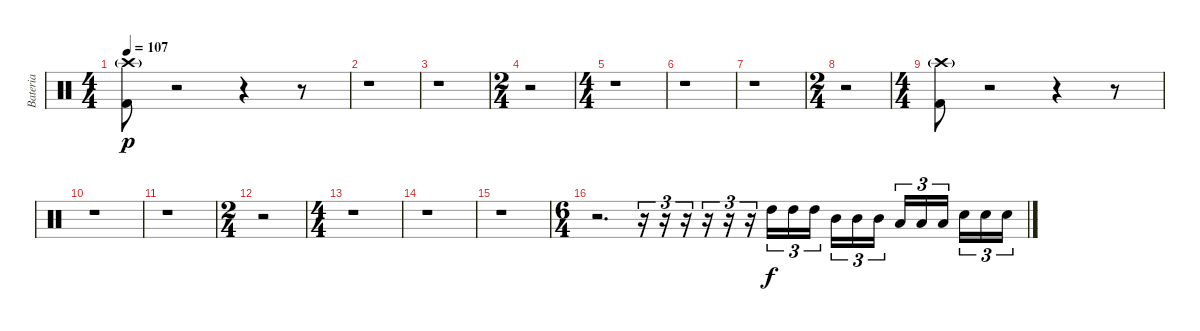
\track ("Bateria" "Bateria") {instrument percussion}
\staff {score}
\articulation defaults
\ts (4 4)
\tempo 107
\clef neutral
\ks c
("Kick (hit) 2" "Crash high (hit)"{g}).8{dy p} r.2 r.4 r.8 |
r.1 |
r.1 |
\ts (2 4)
r.2 |
\ts (4 4)
r.1 |
r.1 |
r.1 |
\ts (2 4)
r.2 |
\ts (4 4)
("Kick (hit) 2" "Crash high (hit)"{g}).8 r.2 r.4 r.8 |
r.1 |
r.1 |
\ts (2 4)
r.2 |
\ts (4 4)
r.1 |
r.1 |
r.1 |
\ts (6 4)
r.2{d} r.16{tu (3 2)} r.16{tu (3 2)} r.16{tu (3 2)} r.16{tu (3 2)} r.16{tu (3 2)} r.16{tu (3 2)} "High Tom (hit)".16{tu (3 2) dy f} "High Tom (hit)".16{tu (3 2)} "High Tom (hit)".16{tu (3 2)} "Mid Tom (hit)".16{tu (3 2)} "Mid Tom (hit)".16{tu (3 2)} "Mid Tom (hit)".16{tu (3 2)} "Low Tom (hit)".16{tu (3 2)} "Low Tom (hit)".16{tu (3 2)} "Low Tom (hit)".16{tu (3 2)} "Snare (hit) 2".16{tu (3 2)} "Snare (hit) 2".16{tu (3 2)} "Snare (hit) 2".16{tu (3 2)}
